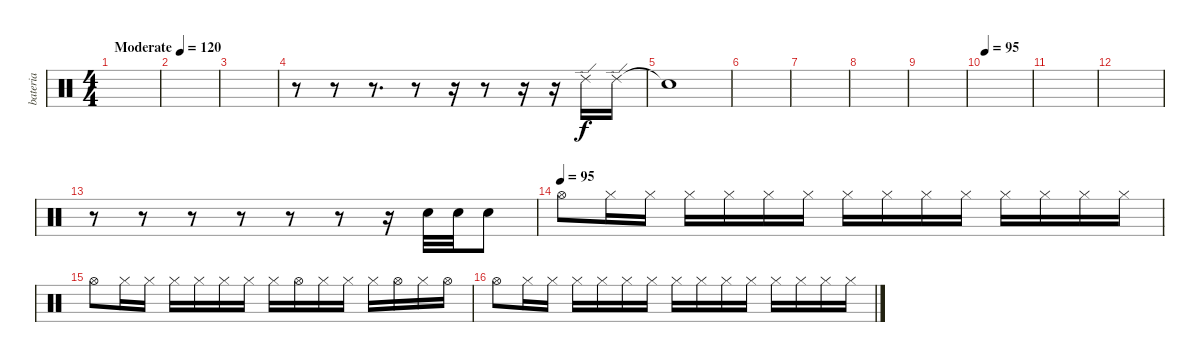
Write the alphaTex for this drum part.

\track ("bateria" "bateria") {instrument percussion}
\staff {score}
\articulation defaults
\ts (4 4)
\tempo (120 "Moderate")
\clef neutral
\ks c
|
|
|
r.8 r.8 r.8{d} r.8 r.16 r.8 r.16 r.16 "Ride (edge) 2".16 "Ride (edge) 2".16 |
"Snare (hit)"{t}.1 |
|
|
|
|
\tempo 95
|
|
|
r.8 r.8 r.8 r.8 r.8 r.8 r.16 "Electric Snare (hit)".32 "Electric Snare (hit)".32 "Electric Snare (hit)".8 |
\tempo (95)
"Hi-Hat (open)".8 "Hi-Hat (closed)".16 "Hi-Hat (closed)".16 "Hi-Hat (closed)".16 "Hi-Hat (closed)".16 "Hi-Hat (closed)".16 "Hi-Hat (closed)".16 "Hi-Hat (closed)".16 "Hi-Hat (closed)".16 "Hi-Hat (closed)".16 "Hi-Hat (closed)".16 "Hi-Hat (closed)".16 "Hi-Hat (closed)".16 "Hi-Hat (closed)".16 "Hi-Hat (closed)".16 |
"Hi-Hat (open)".8 "Hi-Hat (closed)".16 "Hi-Hat (closed)".16 "Hi-Hat (closed)".16 "Hi-Hat (closed)".16 "Hi-Hat (closed)".16 "Hi-Hat (closed)".16 "Hi-Hat (closed)".16 "Hi-Hat (open)".16 "Hi-Hat (closed)".16 "Hi-Hat (closed)".16 "Hi-Hat (closed)".16 "Hi-Hat (open)".16 "Hi-Hat (closed)".16 "Hi-Hat (open)".16 |
"Hi-Hat (open)".8 "Hi-Hat (closed)".16 "Hi-Hat (closed)".16 "Hi-Hat (closed)".16 "Hi-Hat (closed)".16 "Hi-Hat (closed)".16 "Hi-Hat (closed)".16 "Hi-Hat (closed)".16 "Hi-Hat (closed)".16 "Hi-Hat (closed)".16 "Hi-Hat (closed)".16 "Hi-Hat (closed)".16 "Hi-Hat (closed)".16 "Hi-Hat (closed)".16 "Hi-Hat (closed)".16
